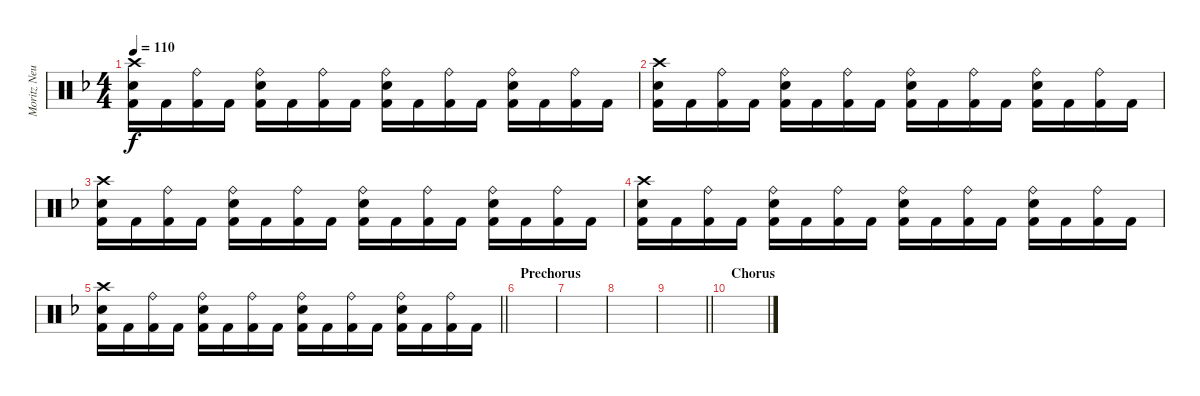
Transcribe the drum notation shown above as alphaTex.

\track ("Moritz Neuner" "Moritz Neu") {instrument percussion}
\staff {score}
\articulation defaults
\ts (4 4)
\tempo 110
\clef neutral
\ks f
("Crash high (hit)" "Snare (hit) 2" "Kick (hit) 2").16{dy f} "Kick (hit) 2".16 ("Ride (bell)" "Kick (hit) 2").16 "Kick (hit) 2".16 ("Ride (bell)" "Snare (hit) 2" "Kick (hit) 2").16 "Kick (hit) 2".16 ("Ride (bell)" "Kick (hit) 2").16 "Kick (hit) 2".16 ("Ride (bell)" "Snare (hit) 2" "Kick (hit) 2").16 "Kick (hit) 2".16 ("Ride (bell)" "Kick (hit) 2").16 "Kick (hit) 2".16 ("Ride (bell)" "Snare (hit) 2" "Kick (hit) 2").16 "Kick (hit) 2".16 ("Ride (bell)" "Kick (hit) 2").16 "Kick (hit) 2".16 |
("Crash high (hit)" "Snare (hit) 2" "Kick (hit) 2").16 "Kick (hit) 2".16 ("Ride (bell)" "Kick (hit) 2").16 "Kick (hit) 2".16 ("Ride (bell)" "Snare (hit) 2" "Kick (hit) 2").16 "Kick (hit) 2".16 ("Ride (bell)" "Kick (hit) 2").16 "Kick (hit) 2".16 ("Ride (bell)" "Snare (hit) 2" "Kick (hit) 2").16 "Kick (hit) 2".16 ("Ride (bell)" "Kick (hit) 2").16 "Kick (hit) 2".16 ("Ride (bell)" "Snare (hit) 2" "Kick (hit) 2").16 "Kick (hit) 2".16 ("Ride (bell)" "Kick (hit) 2").16 "Kick (hit) 2".16 |
("Crash high (hit)" "Snare (hit) 2" "Kick (hit) 2").16 "Kick (hit) 2".16 ("Ride (bell)" "Kick (hit) 2").16 "Kick (hit) 2".16 ("Ride (bell)" "Snare (hit) 2" "Kick (hit) 2").16 "Kick (hit) 2".16 ("Ride (bell)" "Kick (hit) 2").16 "Kick (hit) 2".16 ("Ride (bell)" "Snare (hit) 2" "Kick (hit) 2").16 "Kick (hit) 2".16 ("Ride (bell)" "Kick (hit) 2").16 "Kick (hit) 2".16 ("Ride (bell)" "Snare (hit) 2" "Kick (hit) 2").16 "Kick (hit) 2".16 ("Ride (bell)" "Kick (hit) 2").16 "Kick (hit) 2".16 |
("Crash high (hit)" "Snare (hit) 2" "Kick (hit) 2").16 "Kick (hit) 2".16 ("Ride (bell)" "Kick (hit) 2").16 "Kick (hit) 2".16 ("Ride (bell)" "Snare (hit) 2" "Kick (hit) 2").16 "Kick (hit) 2".16 ("Ride (bell)" "Kick (hit) 2").16 "Kick (hit) 2".16 ("Ride (bell)" "Snare (hit) 2" "Kick (hit) 2").16 "Kick (hit) 2".16 ("Ride (bell)" "Kick (hit) 2").16 "Kick (hit) 2".16 ("Ride (bell)" "Snare (hit) 2" "Kick (hit) 2").16 "Kick (hit) 2".16 ("Ride (bell)" "Kick (hit) 2").16 "Kick (hit) 2".16 |
\barLineRight lightlight
("Crash high (hit)" "Snare (hit) 2" "Kick (hit) 2").16 "Kick (hit) 2".16 ("Ride (bell)" "Kick (hit) 2").16 "Kick (hit) 2".16 ("Ride (bell)" "Snare (hit) 2" "Kick (hit) 2").16 "Kick (hit) 2".16 ("Ride (bell)" "Kick (hit) 2").16 "Kick (hit) 2".16 ("Ride (bell)" "Snare (hit) 2" "Kick (hit) 2").16 "Kick (hit) 2".16 ("Ride (bell)" "Kick (hit) 2").16 "Kick (hit) 2".16 ("Ride (bell)" "Snare (hit) 2" "Kick (hit) 2").16 "Kick (hit) 2".16 ("Ride (bell)" "Kick (hit) 2").16 "Kick (hit) 2".16 |
\section ("" "Prechorus")
|
|
|
\barLineRight lightlight
|
\section ("" "Chorus")
